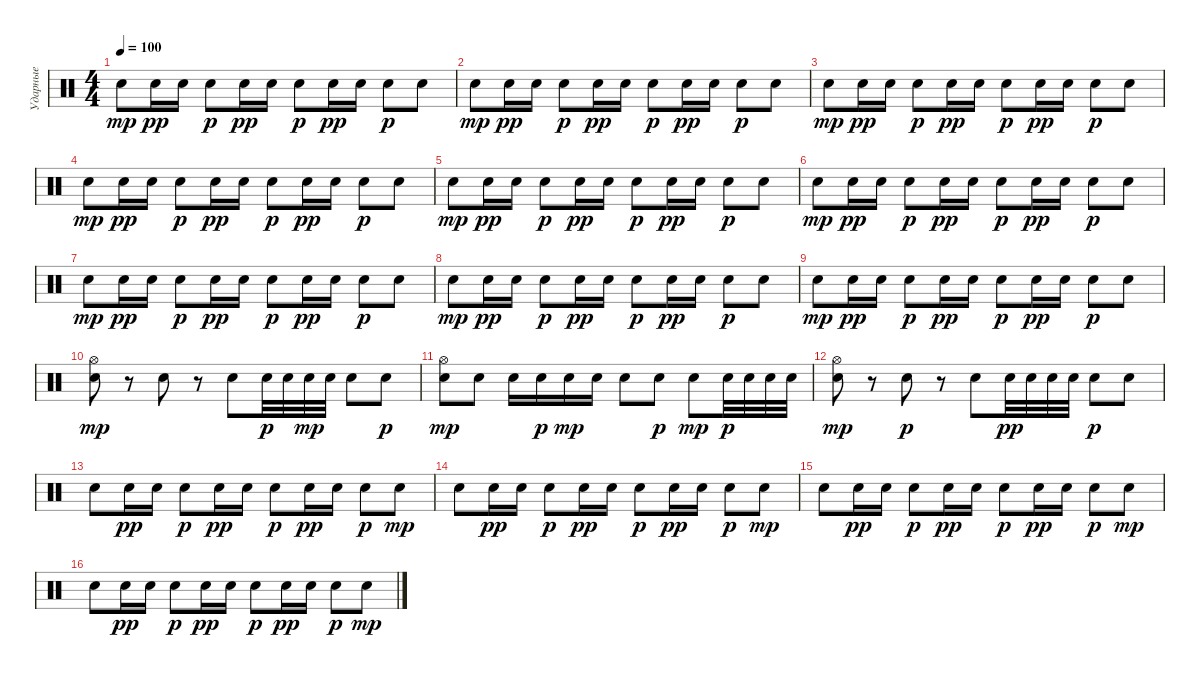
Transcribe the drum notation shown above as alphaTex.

\track ("Ударные" "Ударные") {instrument percussion}
\staff {score}
\articulation defaults
\ts (4 4)
\tempo 100
\clef neutral
\ks c "Electric Snare (hit)".8{dy mp} "Electric Snare (hit)".16{dy pp} "Electric Snare (hit)".16 "Electric Snare (hit)".8{dy p} "Electric Snare (hit)".16{dy pp} "Electric Snare (hit)".16 "Electric Snare (hit)".8{dy p} "Electric Snare (hit)".16{dy pp} "Electric Snare (hit)".16 "Electric Snare (hit)".8{dy p} "Electric Snare (hit)".8
|
"Electric Snare (hit)".8{dy mp} "Electric Snare (hit)".16{dy pp} "Electric Snare (hit)".16 "Electric Snare (hit)".8{dy p} "Electric Snare (hit)".16{dy pp} "Electric Snare (hit)".16 "Electric Snare (hit)".8{dy p} "Electric Snare (hit)".16{dy pp} "Electric Snare (hit)".16 "Electric Snare (hit)".8{dy p} "Electric Snare (hit)".8 |
"Electric Snare (hit)".8{dy mp} "Electric Snare (hit)".16{dy pp} "Electric Snare (hit)".16 "Electric Snare (hit)".8{dy p} "Electric Snare (hit)".16{dy pp} "Electric Snare (hit)".16 "Electric Snare (hit)".8{dy p} "Electric Snare (hit)".16{dy pp} "Electric Snare (hit)".16 "Electric Snare (hit)".8{dy p} "Electric Snare (hit)".8 |
"Electric Snare (hit)".8{dy mp} "Electric Snare (hit)".16{dy pp} "Electric Snare (hit)".16 "Electric Snare (hit)".8{dy p} "Electric Snare (hit)".16{dy pp} "Electric Snare (hit)".16 "Electric Snare (hit)".8{dy p} "Electric Snare (hit)".16{dy pp} "Electric Snare (hit)".16 "Electric Snare (hit)".8{dy p} "Electric Snare (hit)".8 |
"Electric Snare (hit)".8{dy mp} "Electric Snare (hit)".16{dy pp} "Electric Snare (hit)".16 "Electric Snare (hit)".8{dy p} "Electric Snare (hit)".16{dy pp} "Electric Snare (hit)".16 "Electric Snare (hit)".8{dy p} "Electric Snare (hit)".16{dy pp} "Electric Snare (hit)".16 "Electric Snare (hit)".8{dy p} "Electric Snare (hit)".8 |
"Electric Snare (hit)".8{dy mp} "Electric Snare (hit)".16{dy pp} "Electric Snare (hit)".16 "Electric Snare (hit)".8{dy p} "Electric Snare (hit)".16{dy pp} "Electric Snare (hit)".16 "Electric Snare (hit)".8{dy p} "Electric Snare (hit)".16{dy pp} "Electric Snare (hit)".16 "Electric Snare (hit)".8{dy p} "Electric Snare (hit)".8 |
"Electric Snare (hit)".8{dy mp} "Electric Snare (hit)".16{dy pp} "Electric Snare (hit)".16 "Electric Snare (hit)".8{dy p} "Electric Snare (hit)".16{dy pp} "Electric Snare (hit)".16 "Electric Snare (hit)".8{dy p} "Electric Snare (hit)".16{dy pp} "Electric Snare (hit)".16 "Electric Snare (hit)".8{dy p} "Electric Snare (hit)".8 |
"Electric Snare (hit)".8{dy mp} "Electric Snare (hit)".16{dy pp} "Electric Snare (hit)".16 "Electric Snare (hit)".8{dy p} "Electric Snare (hit)".16{dy pp} "Electric Snare (hit)".16 "Electric Snare (hit)".8{dy p} "Electric Snare (hit)".16{dy pp} "Electric Snare (hit)".16 "Electric Snare (hit)".8{dy p} "Electric Snare (hit)".8 |
"Electric Snare (hit)".8{dy mp} "Electric Snare (hit)".16{dy pp} "Electric Snare (hit)".16 "Electric Snare (hit)".8{dy p} "Electric Snare (hit)".16{dy pp} "Electric Snare (hit)".16 "Electric Snare (hit)".8{dy p} "Electric Snare (hit)".16{dy pp} "Electric Snare (hit)".16 "Electric Snare (hit)".8{dy p} "Electric Snare (hit)".8 |
("Electric Snare (hit)" "Hi-Hat (open)").8{dy mp} r.8 "Electric Snare (hit)".8 r.8 "Electric Snare (hit)".8 "Electric Snare (hit)".32{dy p} "Electric Snare (hit)".32 "Electric Snare (hit)".32{dy mp} "Electric Snare (hit)".32 "Electric Snare (hit)".8 "Electric Snare (hit)".8{dy p} |
("Electric Snare (hit)" "Hi-Hat (open)").8{dy mp} "Electric Snare (hit)".8 "Electric Snare (hit)".16 "Electric Snare (hit)".16{dy p} "Electric Snare (hit)".16{dy mp} "Electric Snare (hit)".16 "Electric Snare (hit)".8 "Electric Snare (hit)".8{dy p} "Electric Snare (hit)".8{dy mp} "Electric Snare (hit)".32{dy p} "Electric Snare (hit)".32 "Electric Snare (hit)".32 "Electric Snare (hit)".32 |
("Electric Snare (hit)" "Hi-Hat (open)").8{dy mp} r.8 "Electric Snare (hit)".8{dy p} r.8 "Electric Snare (hit)".8 "Electric Snare (hit)".32{dy pp} "Electric Snare (hit)".32 "Electric Snare (hit)".32 "Electric Snare (hit)".32 "Electric Snare (hit)".8{dy p} "Electric Snare (hit)".8 |
"Electric Snare (hit)".8 "Electric Snare (hit)".16{dy pp} "Electric Snare (hit)".16 "Electric Snare (hit)".8{dy p} "Electric Snare (hit)".16{dy pp} "Electric Snare (hit)".16 "Electric Snare (hit)".8{dy p} "Electric Snare (hit)".16{dy pp} "Electric Snare (hit)".16 "Electric Snare (hit)".8{dy p} "Electric Snare (hit)".8{dy mp} |
"Electric Snare (hit)".8 "Electric Snare (hit)".16{dy pp} "Electric Snare (hit)".16 "Electric Snare (hit)".8{dy p} "Electric Snare (hit)".16{dy pp} "Electric Snare (hit)".16 "Electric Snare (hit)".8{dy p} "Electric Snare (hit)".16{dy pp} "Electric Snare (hit)".16 "Electric Snare (hit)".8{dy p} "Electric Snare (hit)".8{dy mp} |
"Electric Snare (hit)".8 "Electric Snare (hit)".16{dy pp} "Electric Snare (hit)".16 "Electric Snare (hit)".8{dy p} "Electric Snare (hit)".16{dy pp} "Electric Snare (hit)".16 "Electric Snare (hit)".8{dy p} "Electric Snare (hit)".16{dy pp} "Electric Snare (hit)".16 "Electric Snare (hit)".8{dy p} "Electric Snare (hit)".8{dy mp} |
"Electric Snare (hit)".8 "Electric Snare (hit)".16{dy pp} "Electric Snare (hit)".16 "Electric Snare (hit)".8{dy p} "Electric Snare (hit)".16{dy pp} "Electric Snare (hit)".16 "Electric Snare (hit)".8{dy p} "Electric Snare (hit)".16{dy pp} "Electric Snare (hit)".16 "Electric Snare (hit)".8{dy p} "Electric Snare (hit)".8{dy mp}
